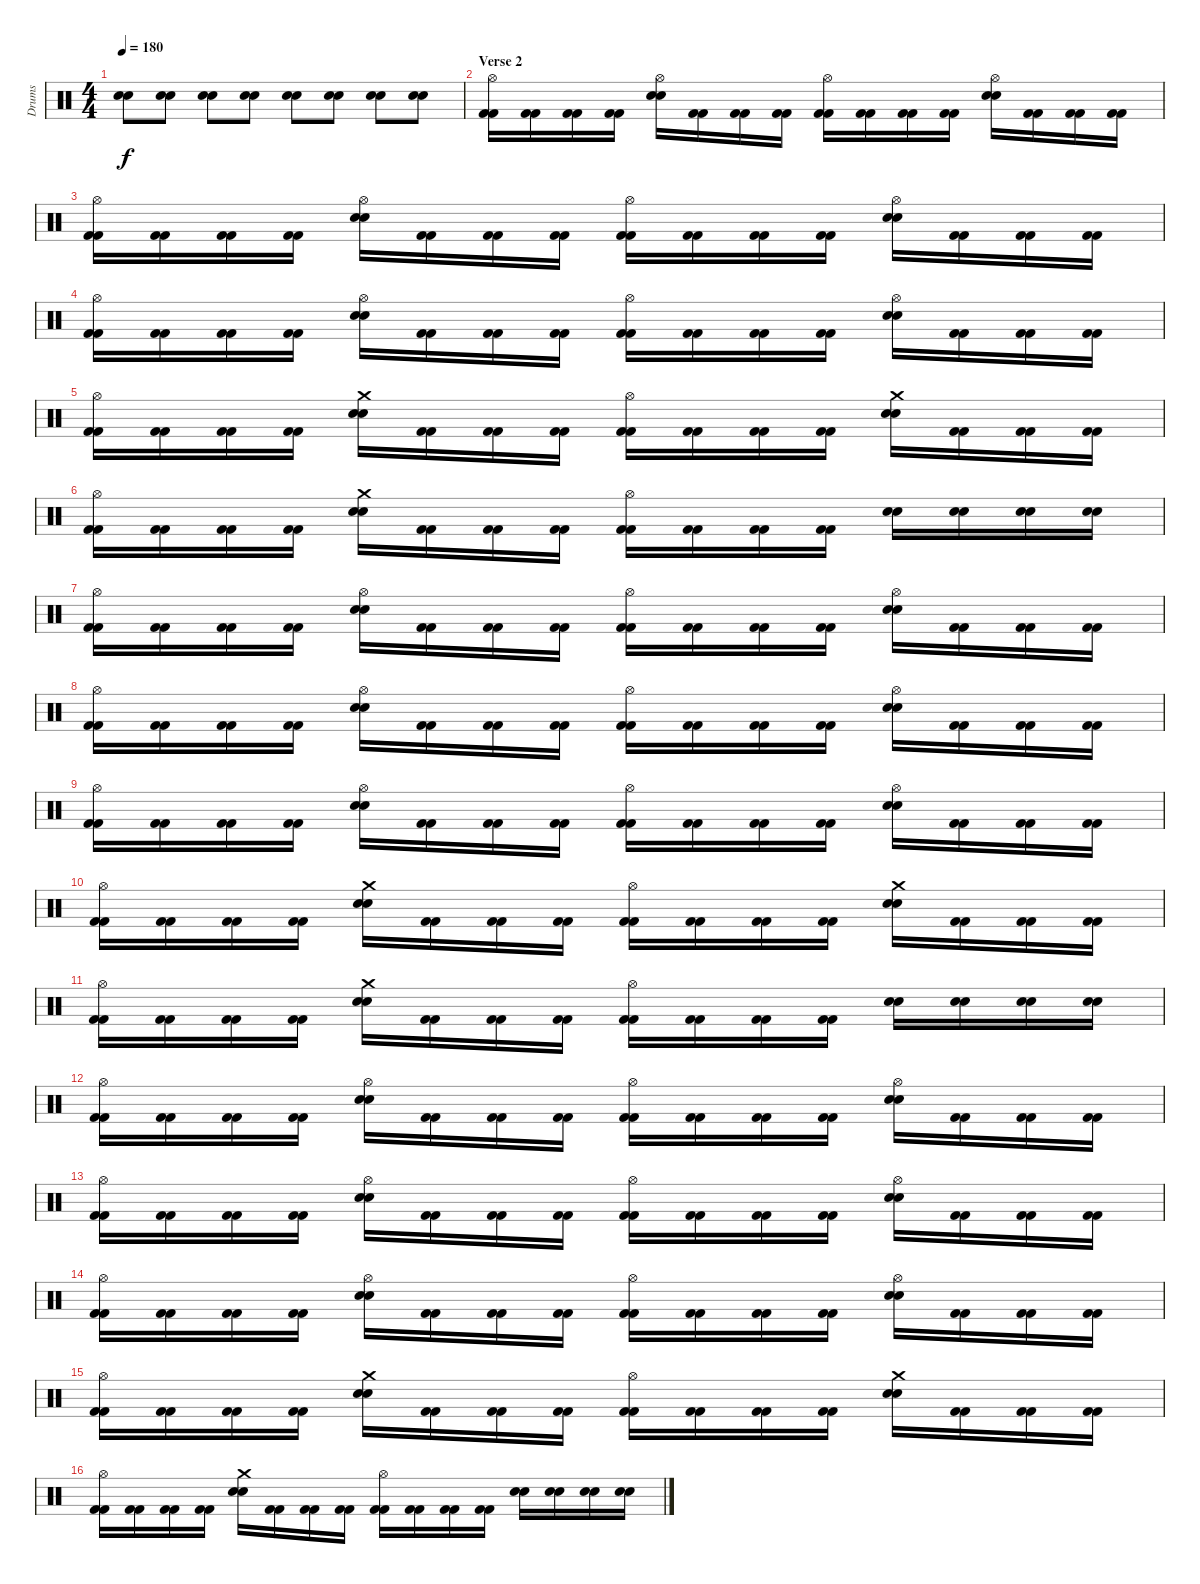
\track ("Drums" "Drums") {instrument percussion}
\staff {score}
\articulation defaults
\ts (4 4)
\tempo 180
\clef neutral
\ks c
("Snare (hit) 2" "Snare (hit) 2").8{dy f} ("Snare (hit) 2" "Snare (hit) 2").8 ("Snare (hit) 2" "Snare (hit) 2").8 ("Snare (hit) 2" "Snare (hit) 2").8 ("Snare (hit) 2" "Snare (hit) 2").8 ("Snare (hit) 2" "Snare (hit) 2").8 ("Snare (hit) 2" "Snare (hit) 2").8 ("Snare (hit) 2" "Snare (hit) 2").8 |
\section ("" "Verse 2")
("Hi-Hat (open)" "Kick (hit) 2" "Kick (hit) 2").16 ("Kick (hit) 2" "Kick (hit) 2").16 ("Kick (hit) 2" "Kick (hit) 2").16 ("Kick (hit) 2" "Kick (hit) 2").16 ("Hi-Hat (open)" "Snare (hit) 2" "Snare (hit) 2").16 ("Kick (hit) 2" "Kick (hit) 2").16 ("Kick (hit) 2" "Kick (hit) 2").16 ("Kick (hit) 2" "Kick (hit) 2").16 ("Hi-Hat (open)" "Kick (hit) 2" "Kick (hit) 2").16 ("Kick (hit) 2" "Kick (hit) 2").16 ("Kick (hit) 2" "Kick (hit) 2").16 ("Kick (hit) 2" "Kick (hit) 2").16 ("Hi-Hat (open)" "Snare (hit) 2" "Snare (hit) 2").16 ("Kick (hit) 2" "Kick (hit) 2").16 ("Kick (hit) 2" "Kick (hit) 2").16 ("Kick (hit) 2" "Kick (hit) 2").16 |
("Hi-Hat (open)" "Kick (hit) 2" "Kick (hit) 2").16 ("Kick (hit) 2" "Kick (hit) 2").16 ("Kick (hit) 2" "Kick (hit) 2").16 ("Kick (hit) 2" "Kick (hit) 2").16 ("Hi-Hat (open)" "Snare (hit) 2" "Snare (hit) 2").16 ("Kick (hit) 2" "Kick (hit) 2").16 ("Kick (hit) 2" "Kick (hit) 2").16 ("Kick (hit) 2" "Kick (hit) 2").16 ("Hi-Hat (open)" "Kick (hit) 2" "Kick (hit) 2").16 ("Kick (hit) 2" "Kick (hit) 2").16 ("Kick (hit) 2" "Kick (hit) 2").16 ("Kick (hit) 2" "Kick (hit) 2").16 ("Hi-Hat (open)" "Snare (hit) 2" "Snare (hit) 2").16 ("Kick (hit) 2" "Kick (hit) 2").16 ("Kick (hit) 2" "Kick (hit) 2").16 ("Kick (hit) 2" "Kick (hit) 2").16 |
("Hi-Hat (open)" "Kick (hit) 2" "Kick (hit) 2").16 ("Kick (hit) 2" "Kick (hit) 2").16 ("Kick (hit) 2" "Kick (hit) 2").16 ("Kick (hit) 2" "Kick (hit) 2").16 ("Hi-Hat (open)" "Snare (hit) 2" "Snare (hit) 2").16 ("Kick (hit) 2" "Kick (hit) 2").16 ("Kick (hit) 2" "Kick (hit) 2").16 ("Kick (hit) 2" "Kick (hit) 2").16 ("Hi-Hat (open)" "Kick (hit) 2" "Kick (hit) 2").16 ("Kick (hit) 2" "Kick (hit) 2").16 ("Kick (hit) 2" "Kick (hit) 2").16 ("Kick (hit) 2" "Kick (hit) 2").16 ("Hi-Hat (open)" "Snare (hit) 2" "Snare (hit) 2").16 ("Kick (hit) 2" "Kick (hit) 2").16 ("Kick (hit) 2" "Kick (hit) 2").16 ("Kick (hit) 2" "Kick (hit) 2").16 |
("Hi-Hat (open)" "Kick (hit) 2" "Kick (hit) 2").16 ("Kick (hit) 2" "Kick (hit) 2").16 ("Kick (hit) 2" "Kick (hit) 2").16 ("Kick (hit) 2" "Kick (hit) 2").16 ("Crash medium (hit)" "Snare (hit) 2" "Snare (hit) 2").16 ("Kick (hit) 2" "Kick (hit) 2").16 ("Kick (hit) 2" "Kick (hit) 2").16 ("Kick (hit) 2" "Kick (hit) 2").16 ("Hi-Hat (open)" "Kick (hit) 2" "Kick (hit) 2").16 ("Kick (hit) 2" "Kick (hit) 2").16 ("Kick (hit) 2" "Kick (hit) 2").16 ("Kick (hit) 2" "Kick (hit) 2").16 ("Crash medium (hit)" "Snare (hit) 2" "Snare (hit) 2").16 ("Kick (hit) 2" "Kick (hit) 2").16 ("Kick (hit) 2" "Kick (hit) 2").16 ("Kick (hit) 2" "Kick (hit) 2").16 |
("Hi-Hat (open)" "Kick (hit) 2" "Kick (hit) 2").16 ("Kick (hit) 2" "Kick (hit) 2").16 ("Kick (hit) 2" "Kick (hit) 2").16 ("Kick (hit) 2" "Kick (hit) 2").16 ("Crash medium (hit)" "Snare (hit) 2" "Snare (hit) 2").16 ("Kick (hit) 2" "Kick (hit) 2").16 ("Kick (hit) 2" "Kick (hit) 2").16 ("Kick (hit) 2" "Kick (hit) 2").16 ("Hi-Hat (open)" "Kick (hit) 2" "Kick (hit) 2").16 ("Kick (hit) 2" "Kick (hit) 2").16 ("Kick (hit) 2" "Kick (hit) 2").16 ("Kick (hit) 2" "Kick (hit) 2").16 ("Snare (hit) 2" "Snare (hit) 2").16 ("Snare (hit) 2" "Snare (hit) 2").16 ("Snare (hit) 2" "Snare (hit) 2").16 ("Snare (hit) 2" "Snare (hit) 2").16 |
("Hi-Hat (open)" "Kick (hit) 2" "Kick (hit) 2").16 ("Kick (hit) 2" "Kick (hit) 2").16 ("Kick (hit) 2" "Kick (hit) 2").16 ("Kick (hit) 2" "Kick (hit) 2").16 ("Hi-Hat (open)" "Snare (hit) 2" "Snare (hit) 2").16 ("Kick (hit) 2" "Kick (hit) 2").16 ("Kick (hit) 2" "Kick (hit) 2").16 ("Kick (hit) 2" "Kick (hit) 2").16 ("Hi-Hat (open)" "Kick (hit) 2" "Kick (hit) 2").16 ("Kick (hit) 2" "Kick (hit) 2").16 ("Kick (hit) 2" "Kick (hit) 2").16 ("Kick (hit) 2" "Kick (hit) 2").16 ("Hi-Hat (open)" "Snare (hit) 2" "Snare (hit) 2").16 ("Kick (hit) 2" "Kick (hit) 2").16 ("Kick (hit) 2" "Kick (hit) 2").16 ("Kick (hit) 2" "Kick (hit) 2").16 |
("Hi-Hat (open)" "Kick (hit) 2" "Kick (hit) 2").16 ("Kick (hit) 2" "Kick (hit) 2").16 ("Kick (hit) 2" "Kick (hit) 2").16 ("Kick (hit) 2" "Kick (hit) 2").16 ("Hi-Hat (open)" "Snare (hit) 2" "Snare (hit) 2").16 ("Kick (hit) 2" "Kick (hit) 2").16 ("Kick (hit) 2" "Kick (hit) 2").16 ("Kick (hit) 2" "Kick (hit) 2").16 ("Hi-Hat (open)" "Kick (hit) 2" "Kick (hit) 2").16 ("Kick (hit) 2" "Kick (hit) 2").16 ("Kick (hit) 2" "Kick (hit) 2").16 ("Kick (hit) 2" "Kick (hit) 2").16 ("Hi-Hat (open)" "Snare (hit) 2" "Snare (hit) 2").16 ("Kick (hit) 2" "Kick (hit) 2").16 ("Kick (hit) 2" "Kick (hit) 2").16 ("Kick (hit) 2" "Kick (hit) 2").16 |
("Hi-Hat (open)" "Kick (hit) 2" "Kick (hit) 2").16 ("Kick (hit) 2" "Kick (hit) 2").16 ("Kick (hit) 2" "Kick (hit) 2").16 ("Kick (hit) 2" "Kick (hit) 2").16 ("Hi-Hat (open)" "Snare (hit) 2" "Snare (hit) 2").16 ("Kick (hit) 2" "Kick (hit) 2").16 ("Kick (hit) 2" "Kick (hit) 2").16 ("Kick (hit) 2" "Kick (hit) 2").16 ("Hi-Hat (open)" "Kick (hit) 2" "Kick (hit) 2").16 ("Kick (hit) 2" "Kick (hit) 2").16 ("Kick (hit) 2" "Kick (hit) 2").16 ("Kick (hit) 2" "Kick (hit) 2").16 ("Hi-Hat (open)" "Snare (hit) 2" "Snare (hit) 2").16 ("Kick (hit) 2" "Kick (hit) 2").16 ("Kick (hit) 2" "Kick (hit) 2").16 ("Kick (hit) 2" "Kick (hit) 2").16 |
("Hi-Hat (open)" "Kick (hit) 2" "Kick (hit) 2").16 ("Kick (hit) 2" "Kick (hit) 2").16 ("Kick (hit) 2" "Kick (hit) 2").16 ("Kick (hit) 2" "Kick (hit) 2").16 ("Crash medium (hit)" "Snare (hit) 2" "Snare (hit) 2").16 ("Kick (hit) 2" "Kick (hit) 2").16 ("Kick (hit) 2" "Kick (hit) 2").16 ("Kick (hit) 2" "Kick (hit) 2").16 ("Hi-Hat (open)" "Kick (hit) 2" "Kick (hit) 2").16 ("Kick (hit) 2" "Kick (hit) 2").16 ("Kick (hit) 2" "Kick (hit) 2").16 ("Kick (hit) 2" "Kick (hit) 2").16 ("Crash medium (hit)" "Snare (hit) 2" "Snare (hit) 2").16 ("Kick (hit) 2" "Kick (hit) 2").16 ("Kick (hit) 2" "Kick (hit) 2").16 ("Kick (hit) 2" "Kick (hit) 2").16 |
("Hi-Hat (open)" "Kick (hit) 2" "Kick (hit) 2").16 ("Kick (hit) 2" "Kick (hit) 2").16 ("Kick (hit) 2" "Kick (hit) 2").16 ("Kick (hit) 2" "Kick (hit) 2").16 ("Crash medium (hit)" "Snare (hit) 2" "Snare (hit) 2").16 ("Kick (hit) 2" "Kick (hit) 2").16 ("Kick (hit) 2" "Kick (hit) 2").16 ("Kick (hit) 2" "Kick (hit) 2").16 ("Hi-Hat (open)" "Kick (hit) 2" "Kick (hit) 2").16 ("Kick (hit) 2" "Kick (hit) 2").16 ("Kick (hit) 2" "Kick (hit) 2").16 ("Kick (hit) 2" "Kick (hit) 2").16 ("Snare (hit) 2" "Snare (hit) 2").16 ("Snare (hit) 2" "Snare (hit) 2").16 ("Snare (hit) 2" "Snare (hit) 2").16 ("Snare (hit) 2" "Snare (hit) 2").16 |
("Hi-Hat (open)" "Kick (hit) 2" "Kick (hit) 2").16 ("Kick (hit) 2" "Kick (hit) 2").16 ("Kick (hit) 2" "Kick (hit) 2").16 ("Kick (hit) 2" "Kick (hit) 2").16 ("Hi-Hat (open)" "Snare (hit) 2" "Snare (hit) 2").16 ("Kick (hit) 2" "Kick (hit) 2").16 ("Kick (hit) 2" "Kick (hit) 2").16 ("Kick (hit) 2" "Kick (hit) 2").16 ("Hi-Hat (open)" "Kick (hit) 2" "Kick (hit) 2").16 ("Kick (hit) 2" "Kick (hit) 2").16 ("Kick (hit) 2" "Kick (hit) 2").16 ("Kick (hit) 2" "Kick (hit) 2").16 ("Hi-Hat (open)" "Snare (hit) 2" "Snare (hit) 2").16 ("Kick (hit) 2" "Kick (hit) 2").16 ("Kick (hit) 2" "Kick (hit) 2").16 ("Kick (hit) 2" "Kick (hit) 2").16 |
("Hi-Hat (open)" "Kick (hit) 2" "Kick (hit) 2").16 ("Kick (hit) 2" "Kick (hit) 2").16 ("Kick (hit) 2" "Kick (hit) 2").16 ("Kick (hit) 2" "Kick (hit) 2").16 ("Hi-Hat (open)" "Snare (hit) 2" "Snare (hit) 2").16 ("Kick (hit) 2" "Kick (hit) 2").16 ("Kick (hit) 2" "Kick (hit) 2").16 ("Kick (hit) 2" "Kick (hit) 2").16 ("Hi-Hat (open)" "Kick (hit) 2" "Kick (hit) 2").16 ("Kick (hit) 2" "Kick (hit) 2").16 ("Kick (hit) 2" "Kick (hit) 2").16 ("Kick (hit) 2" "Kick (hit) 2").16 ("Hi-Hat (open)" "Snare (hit) 2" "Snare (hit) 2").16 ("Kick (hit) 2" "Kick (hit) 2").16 ("Kick (hit) 2" "Kick (hit) 2").16 ("Kick (hit) 2" "Kick (hit) 2").16 |
("Hi-Hat (open)" "Kick (hit) 2" "Kick (hit) 2").16 ("Kick (hit) 2" "Kick (hit) 2").16 ("Kick (hit) 2" "Kick (hit) 2").16 ("Kick (hit) 2" "Kick (hit) 2").16 ("Hi-Hat (open)" "Snare (hit) 2" "Snare (hit) 2").16 ("Kick (hit) 2" "Kick (hit) 2").16 ("Kick (hit) 2" "Kick (hit) 2").16 ("Kick (hit) 2" "Kick (hit) 2").16 ("Hi-Hat (open)" "Kick (hit) 2" "Kick (hit) 2").16 ("Kick (hit) 2" "Kick (hit) 2").16 ("Kick (hit) 2" "Kick (hit) 2").16 ("Kick (hit) 2" "Kick (hit) 2").16 ("Hi-Hat (open)" "Snare (hit) 2" "Snare (hit) 2").16 ("Kick (hit) 2" "Kick (hit) 2").16 ("Kick (hit) 2" "Kick (hit) 2").16 ("Kick (hit) 2" "Kick (hit) 2").16 |
("Hi-Hat (open)" "Kick (hit) 2" "Kick (hit) 2").16 ("Kick (hit) 2" "Kick (hit) 2").16 ("Kick (hit) 2" "Kick (hit) 2").16 ("Kick (hit) 2" "Kick (hit) 2").16 ("Crash medium (hit)" "Snare (hit) 2" "Snare (hit) 2").16 ("Kick (hit) 2" "Kick (hit) 2").16 ("Kick (hit) 2" "Kick (hit) 2").16 ("Kick (hit) 2" "Kick (hit) 2").16 ("Hi-Hat (open)" "Kick (hit) 2" "Kick (hit) 2").16 ("Kick (hit) 2" "Kick (hit) 2").16 ("Kick (hit) 2" "Kick (hit) 2").16 ("Kick (hit) 2" "Kick (hit) 2").16 ("Crash medium (hit)" "Snare (hit) 2" "Snare (hit) 2").16 ("Kick (hit) 2" "Kick (hit) 2").16 ("Kick (hit) 2" "Kick (hit) 2").16 ("Kick (hit) 2" "Kick (hit) 2").16 |
("Hi-Hat (open)" "Kick (hit) 2" "Kick (hit) 2").16 ("Kick (hit) 2" "Kick (hit) 2").16 ("Kick (hit) 2" "Kick (hit) 2").16 ("Kick (hit) 2" "Kick (hit) 2").16 ("Crash medium (hit)" "Snare (hit) 2" "Snare (hit) 2").16 ("Kick (hit) 2" "Kick (hit) 2").16 ("Kick (hit) 2" "Kick (hit) 2").16 ("Kick (hit) 2" "Kick (hit) 2").16 ("Hi-Hat (open)" "Kick (hit) 2" "Kick (hit) 2").16 ("Kick (hit) 2" "Kick (hit) 2").16 ("Kick (hit) 2" "Kick (hit) 2").16 ("Kick (hit) 2" "Kick (hit) 2").16 ("Snare (hit) 2" "Snare (hit) 2").16 ("Snare (hit) 2" "Snare (hit) 2").16 ("Snare (hit) 2" "Snare (hit) 2").16 ("Snare (hit) 2" "Snare (hit) 2").16
